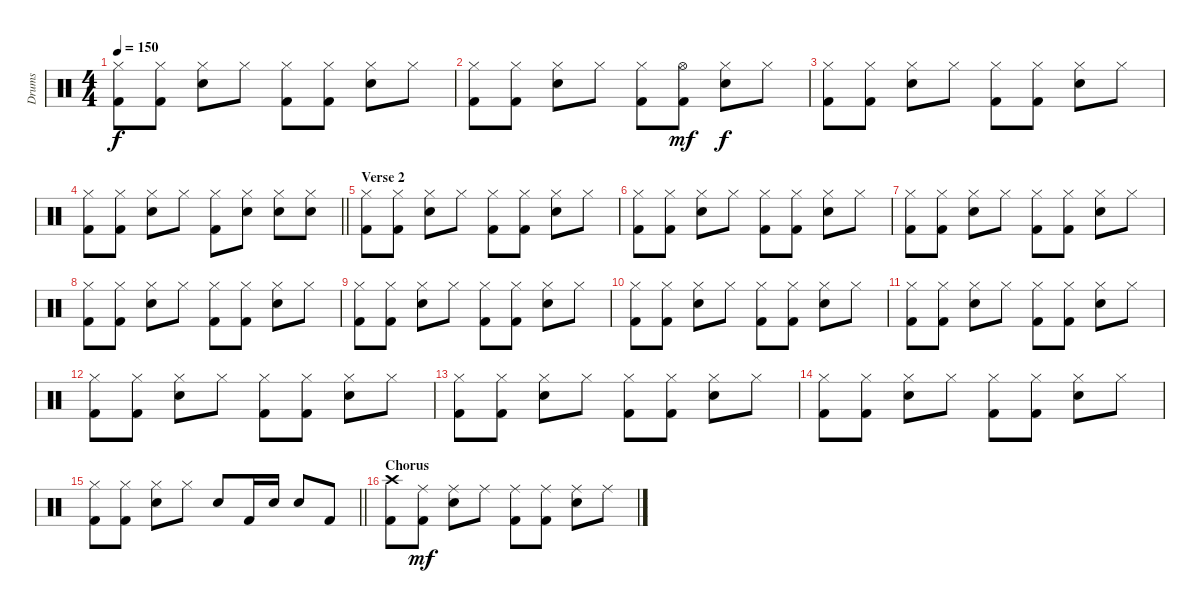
\track ("Drums" "Drums") {instrument percussion}
\staff {score}
\articulation defaults
\ts (4 4)
\tempo 150
\clef neutral
\ks c
("Hi-Hat (closed)" "Kick (hit) 2").8{dy f} ("Hi-Hat (closed)" "Kick (hit) 2").8 ("Hi-Hat (closed)" "Electric Snare (hit)").8 "Hi-Hat (closed)".8 ("Hi-Hat (closed)" "Kick (hit) 2").8 ("Hi-Hat (closed)" "Kick (hit) 2").8 ("Hi-Hat (closed)" "Electric Snare (hit)").8 "Hi-Hat (closed)".8 |
("Hi-Hat (closed)" "Kick (hit) 2").8 ("Hi-Hat (closed)" "Kick (hit) 2").8 ("Hi-Hat (closed)" "Electric Snare (hit)").8 "Hi-Hat (closed)".8 ("Hi-Hat (closed)" "Kick (hit) 2").8 ("Hi-Hat (open)" "Kick (hit) 2").8{dy mf} ("Hi-Hat (closed)" "Electric Snare (hit)").8{dy f} "Hi-Hat (closed)".8 |
("Hi-Hat (closed)" "Kick (hit) 2").8 ("Hi-Hat (closed)" "Kick (hit) 2").8 ("Hi-Hat (closed)" "Electric Snare (hit)").8 "Hi-Hat (closed)".8 ("Hi-Hat (closed)" "Kick (hit) 2").8 ("Hi-Hat (closed)" "Kick (hit) 2").8 ("Hi-Hat (closed)" "Electric Snare (hit)").8 "Hi-Hat (closed)".8 |
\barLineRight lightlight
("Hi-Hat (closed)" "Kick (hit) 2").8 ("Hi-Hat (closed)" "Kick (hit) 2").8 ("Hi-Hat (closed)" "Electric Snare (hit)").8 "Hi-Hat (closed)".8 ("Hi-Hat (closed)" "Kick (hit) 2").8 ("Hi-Hat (closed)" "Electric Snare (hit)").8 ("Hi-Hat (closed)" "Electric Snare (hit)").8 ("Hi-Hat (closed)" "Electric Snare (hit)").8 |
\section ("" "Verse 2")
("Hi-Hat (closed)" "Kick (hit) 2").8 ("Hi-Hat (closed)" "Kick (hit) 2").8 ("Hi-Hat (closed)" "Electric Snare (hit)").8 "Hi-Hat (closed)".8 ("Hi-Hat (closed)" "Kick (hit) 2").8 ("Hi-Hat (closed)" "Kick (hit) 2").8 ("Hi-Hat (closed)" "Electric Snare (hit)").8 "Hi-Hat (closed)".8 |
("Hi-Hat (closed)" "Kick (hit) 2").8 ("Hi-Hat (closed)" "Kick (hit) 2").8 ("Hi-Hat (closed)" "Electric Snare (hit)").8 "Hi-Hat (closed)".8 ("Hi-Hat (closed)" "Kick (hit) 2").8 ("Hi-Hat (closed)" "Kick (hit) 2").8 ("Hi-Hat (closed)" "Electric Snare (hit)").8 "Hi-Hat (closed)".8 |
("Hi-Hat (closed)" "Kick (hit) 2").8 ("Hi-Hat (closed)" "Kick (hit) 2").8 ("Hi-Hat (closed)" "Electric Snare (hit)").8 "Hi-Hat (closed)".8 ("Hi-Hat (closed)" "Kick (hit) 2").8 ("Hi-Hat (closed)" "Kick (hit) 2").8 ("Hi-Hat (closed)" "Electric Snare (hit)").8 "Hi-Hat (closed)".8 |
("Hi-Hat (closed)" "Kick (hit) 2").8 ("Hi-Hat (closed)" "Kick (hit) 2").8 ("Hi-Hat (closed)" "Electric Snare (hit)").8 "Hi-Hat (closed)".8 ("Hi-Hat (closed)" "Kick (hit) 2").8 ("Hi-Hat (closed)" "Kick (hit) 2").8 ("Hi-Hat (closed)" "Electric Snare (hit)").8 "Hi-Hat (closed)".8 |
("Hi-Hat (closed)" "Kick (hit) 2").8 ("Hi-Hat (closed)" "Kick (hit) 2").8 ("Hi-Hat (closed)" "Electric Snare (hit)").8 "Hi-Hat (closed)".8 ("Hi-Hat (closed)" "Kick (hit) 2").8 ("Hi-Hat (closed)" "Kick (hit) 2").8 ("Hi-Hat (closed)" "Electric Snare (hit)").8 "Hi-Hat (closed)".8 |
("Hi-Hat (closed)" "Kick (hit) 2").8 ("Hi-Hat (closed)" "Kick (hit) 2").8 ("Hi-Hat (closed)" "Electric Snare (hit)").8 "Hi-Hat (closed)".8 ("Hi-Hat (closed)" "Kick (hit) 2").8 ("Hi-Hat (closed)" "Kick (hit) 2").8 ("Hi-Hat (closed)" "Electric Snare (hit)").8 "Hi-Hat (closed)".8 |
("Hi-Hat (closed)" "Kick (hit) 2").8 ("Hi-Hat (closed)" "Kick (hit) 2").8 ("Hi-Hat (closed)" "Electric Snare (hit)").8 "Hi-Hat (closed)".8 ("Hi-Hat (closed)" "Kick (hit) 2").8 ("Hi-Hat (closed)" "Kick (hit) 2").8 ("Hi-Hat (closed)" "Electric Snare (hit)").8 "Hi-Hat (closed)".8 |
("Hi-Hat (closed)" "Kick (hit) 2").8 ("Hi-Hat (closed)" "Kick (hit) 2").8 ("Hi-Hat (closed)" "Electric Snare (hit)").8 "Hi-Hat (closed)".8 ("Hi-Hat (closed)" "Kick (hit) 2").8 ("Hi-Hat (closed)" "Kick (hit) 2").8 ("Hi-Hat (closed)" "Electric Snare (hit)").8 "Hi-Hat (closed)".8 |
("Hi-Hat (closed)" "Kick (hit) 2").8 ("Hi-Hat (closed)" "Kick (hit) 2").8 ("Hi-Hat (closed)" "Electric Snare (hit)").8 "Hi-Hat (closed)".8 ("Hi-Hat (closed)" "Kick (hit) 2").8 ("Hi-Hat (closed)" "Kick (hit) 2").8 ("Hi-Hat (closed)" "Electric Snare (hit)").8 "Hi-Hat (closed)".8 |
("Hi-Hat (closed)" "Kick (hit) 2").8 ("Hi-Hat (closed)" "Kick (hit) 2").8 ("Hi-Hat (closed)" "Electric Snare (hit)").8 "Hi-Hat (closed)".8 ("Hi-Hat (closed)" "Kick (hit) 2").8 ("Hi-Hat (closed)" "Kick (hit) 2").8 ("Hi-Hat (closed)" "Electric Snare (hit)").8 "Hi-Hat (closed)".8 |
\barLineRight lightlight
("Hi-Hat (closed)" "Kick (hit) 2").8 ("Hi-Hat (closed)" "Kick (hit) 2").8 ("Hi-Hat (closed)" "Electric Snare (hit)").8 "Hi-Hat (closed)".8 "Electric Snare (hit)".8 "Kick (hit) 2".16 "Electric Snare (hit)".16 "Electric Snare (hit)".8 "Kick (hit) 2".8 |
\section ("" "Chorus")
("Crash high (hit)" "Kick (hit) 2").8 ("Ride (middle)" "Kick (hit) 2").8{dy mf} ("Ride (middle)" "Electric Snare (hit)").8 "Ride (middle)".8 ("Ride (middle)" "Kick (hit) 2").8 ("Ride (middle)" "Kick (hit) 2").8 ("Ride (middle)" "Electric Snare (hit)").8 "Ride (middle)".8
